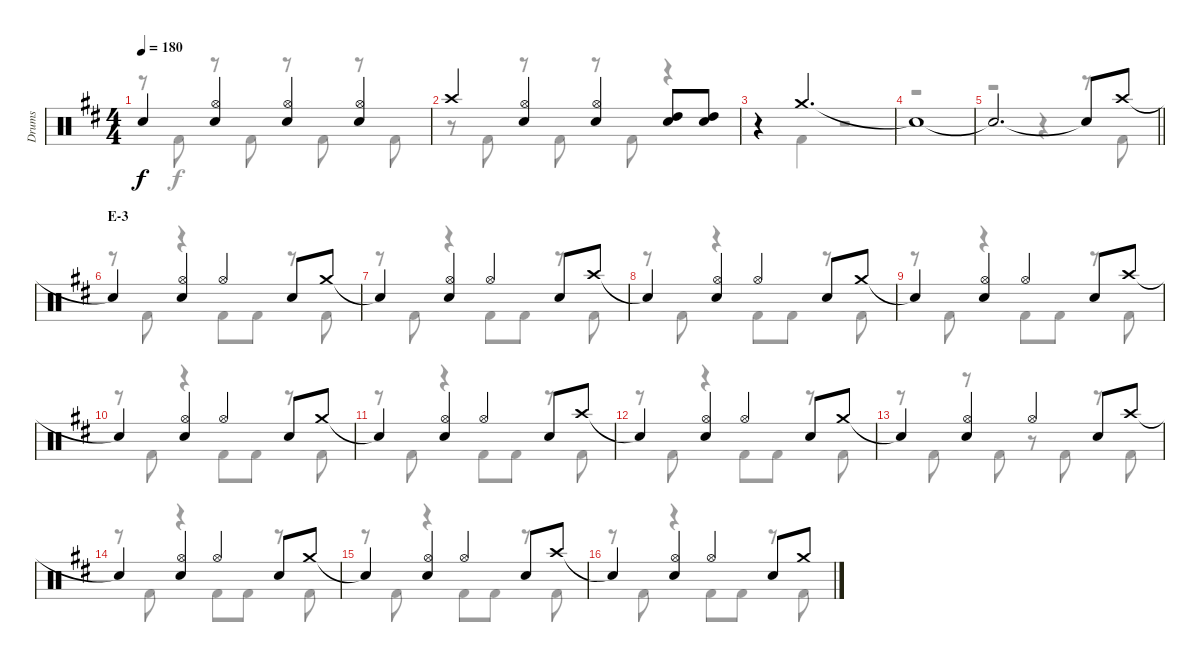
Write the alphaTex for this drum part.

\track ("Drums" "Drums") {instrument percussion}
\staff {score}
\articulation defaults
\voice
\ts (4 4)
\tempo 180
\clef neutral
\ks d "Snare (hit)"{t}.4{dy f}
("Hi-Hat (open)" "Snare (hit) 2").4 ("Hi-Hat (open)" "Snare (hit) 2").4 ("Hi-Hat (open)" "Snare (hit) 2").4 |
"Crash high (hit)".4 ("Hi-Hat (open)" "Snare (hit) 2").4 ("Hi-Hat (open)" "Snare (hit) 2").4 ("High Tom (hit)" "Snare (hit) 2").8 ("High Tom (hit)" "Snare (hit) 2").8 |
r.4 "Crash medium (hit)".2{d} |
"Snare (hit)"{t}.1 |
\barLineRight lightlight "Snare (hit)"{t}.2{d} "Snare (hit)"{t}.8 "Crash high (hit)".8
|
\section ("" "E-3")
"Snare (hit)"{t}.4 ("Hi-Hat (open)" "Snare (hit) 2").4 "Hi-Hat (open)".4 "Snare (hit) 2".8 "Crash medium (hit)".8 |
"Snare (hit)"{t}.4 ("Hi-Hat (open)" "Snare (hit) 2").4 "Hi-Hat (open)".4 "Snare (hit) 2".8 "Crash high (hit)".8 |
"Snare (hit)"{t}.4 ("Hi-Hat (open)" "Snare (hit) 2").4 "Hi-Hat (open)".4 "Snare (hit) 2".8 "Crash medium (hit)".8 |
"Snare (hit)"{t}.4 ("Hi-Hat (open)" "Snare (hit) 2").4 "Hi-Hat (open)".4 "Snare (hit) 2".8 "Crash high (hit)".8 |
"Snare (hit)"{t}.4 ("Hi-Hat (open)" "Snare (hit) 2").4 "Hi-Hat (open)".4 "Snare (hit) 2".8 "Crash medium (hit)".8 |
"Snare (hit)"{t}.4 ("Hi-Hat (open)" "Snare (hit) 2").4 "Hi-Hat (open)".4 "Snare (hit) 2".8 "Crash high (hit)".8 |
"Snare (hit)"{t}.4 ("Hi-Hat (open)" "Snare (hit) 2").4 "Hi-Hat (open)".4 "Snare (hit) 2".8 "Crash medium (hit)".8 |
"Snare (hit)"{t}.4 ("Hi-Hat (open)" "Snare (hit) 2").4 "Hi-Hat (open)".4 "Snare (hit) 2".8 "Crash high (hit)".8 |
"Snare (hit)"{t}.4 ("Hi-Hat (open)" "Snare (hit) 2").4 "Hi-Hat (open)".4 "Snare (hit) 2".8 "Crash medium (hit)".8 |
"Snare (hit)"{t}.4 ("Hi-Hat (open)" "Snare (hit) 2").4 "Hi-Hat (open)".4 "Snare (hit) 2".8 "Crash high (hit)".8 |
"Snare (hit)"{t}.4 ("Hi-Hat (open)" "Snare (hit) 2").4 "Hi-Hat (open)".4 "Snare (hit) 2".8 "Crash medium (hit)".8
\voice
\clef neutral
\ottava regular
\simile none
\ks d
r.8{dy f} "Kick (hit) 2".8 r.8 "Kick (hit) 2".8 r.8 "Kick (hit) 2".8 r.8 "Kick (hit) 2".8 |
r.8 "Kick (hit) 2".8 r.8 "Kick (hit) 2".8 r.8 "Kick (hit) 2".8 r.4 |
r.4 "Kick (hit) 2".4 r.2 |
r.1 |
\barLineRight lightlight
r.2 r.4 r.8 "Kick (hit) 2".8 |
r.8 "Kick (hit) 2".8 r.4 "Kick (hit) 2".8 "Kick (hit) 2".8 r.8 "Kick (hit) 2".8 |
r.8 "Kick (hit) 2".8 r.4 "Kick (hit) 2".8 "Kick (hit) 2".8 r.8 "Kick (hit) 2".8 |
r.8 "Kick (hit) 2".8 r.4 "Kick (hit) 2".8 "Kick (hit) 2".8 r.8 "Kick (hit) 2".8 |
r.8 "Kick (hit) 2".8 r.4 "Kick (hit) 2".8 "Kick (hit) 2".8 r.8 "Kick (hit) 2".8 |
r.8 "Kick (hit) 2".8 r.4 "Kick (hit) 2".8 "Kick (hit) 2".8 r.8 "Kick (hit) 2".8 |
r.8 "Kick (hit) 2".8 r.4 "Kick (hit) 2".8 "Kick (hit) 2".8 r.8 "Kick (hit) 2".8 |
r.8 "Kick (hit) 2".8 r.4 "Kick (hit) 2".8 "Kick (hit) 2".8 r.8 "Kick (hit) 2".8 |
r.8 "Kick (hit) 2".8 r.8 "Kick (hit) 2".8 r.8 "Kick (hit) 2".8 r.8 "Kick (hit) 2".8 |
r.8 "Kick (hit) 2".8 r.4 "Kick (hit) 2".8 "Kick (hit) 2".8 r.8 "Kick (hit) 2".8 |
r.8 "Kick (hit) 2".8 r.4 "Kick (hit) 2".8 "Kick (hit) 2".8 r.8 "Kick (hit) 2".8 |
r.8 "Kick (hit) 2".8 r.4 "Kick (hit) 2".8 "Kick (hit) 2".8 r.8 "Kick (hit) 2".8
